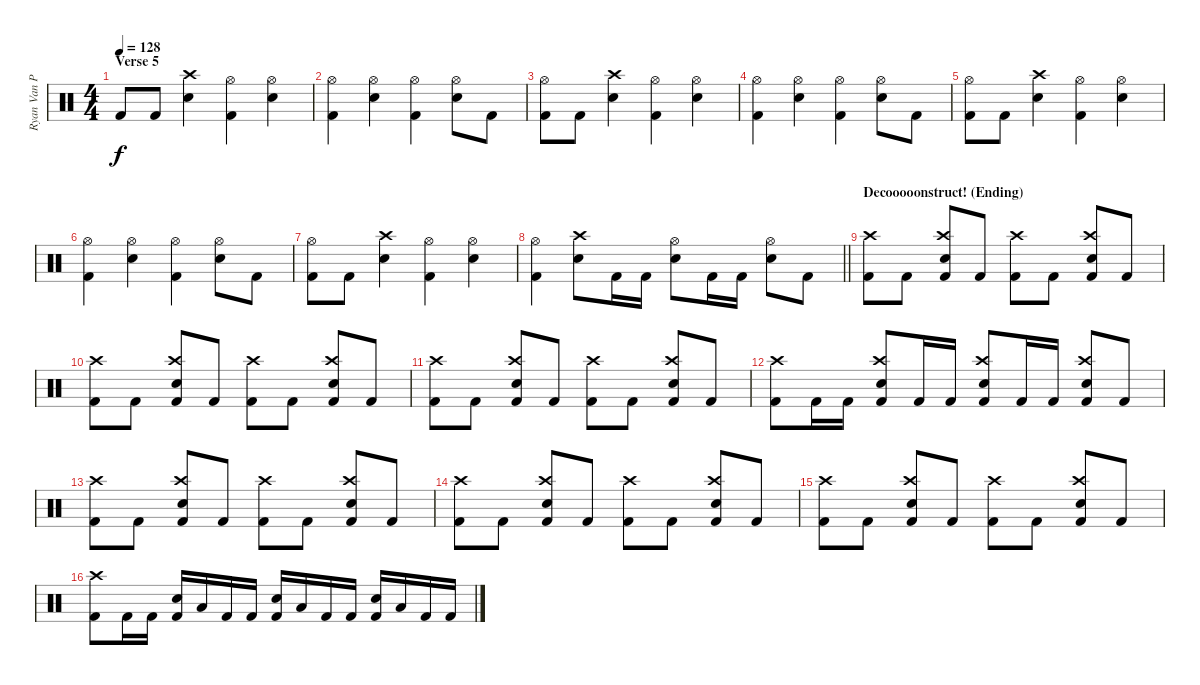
\track ("Ryan Van Poederooyen" "Ryan Van P") {instrument percussion}
\staff {score}
\articulation defaults
\ts (4 4)
\section ("" "Verse 5")
\tempo 128
\clef neutral
\ks c "Kick (hit) 2".8{dy f} "Kick (hit) 2".8
("Crash high (hit)" "Electric Snare (hit)").4 ("Hi-Hat (open)" "Kick (hit) 2").4 ("Hi-Hat (open)" "Electric Snare (hit)").4 |
("Hi-Hat (open)" "Kick (hit) 2").4 ("Hi-Hat (open)" "Electric Snare (hit)").4 ("Hi-Hat (open)" "Kick (hit) 2").4 ("Hi-Hat (open)" "Electric Snare (hit)").8 "Kick (hit) 2".8 |
("Hi-Hat (open)" "Kick (hit) 2").8 "Kick (hit) 2".8 ("Crash high (hit)" "Electric Snare (hit)").4 ("Hi-Hat (open)" "Kick (hit) 2").4 ("Hi-Hat (open)" "Electric Snare (hit)").4 |
("Hi-Hat (open)" "Kick (hit) 2").4 ("Hi-Hat (open)" "Electric Snare (hit)").4 ("Hi-Hat (open)" "Kick (hit) 2").4 ("Hi-Hat (open)" "Electric Snare (hit)").8 "Kick (hit) 2".8 |
("Hi-Hat (open)" "Kick (hit) 2").8 "Kick (hit) 2".8 ("Crash high (hit)" "Electric Snare (hit)").4 ("Hi-Hat (open)" "Kick (hit) 2").4 ("Hi-Hat (open)" "Electric Snare (hit)").4 |
("Hi-Hat (open)" "Kick (hit) 2").4 ("Hi-Hat (open)" "Electric Snare (hit)").4 ("Hi-Hat (open)" "Kick (hit) 2").4 ("Hi-Hat (open)" "Electric Snare (hit)").8 "Kick (hit) 2".8 |
("Hi-Hat (open)" "Kick (hit) 2").8 "Kick (hit) 2".8 ("Crash high (hit)" "Electric Snare (hit)").4 ("Hi-Hat (open)" "Kick (hit) 2").4 ("Hi-Hat (open)" "Electric Snare (hit)").4 |
\barLineRight lightlight
("Hi-Hat (open)" "Kick (hit) 2").4 ("Crash high (hit)" "Electric Snare (hit)").8 "Kick (hit) 2".16 "Kick (hit) 2".16 ("Hi-Hat (open)" "Electric Snare (hit)").8 "Kick (hit) 2".16 "Kick (hit) 2".16 ("Hi-Hat (open)" "Electric Snare (hit)").8 "Kick (hit) 2".8 |
\section ("" "Decooooonstruct! (Ending)")
("Crash high (hit)" "Kick (hit) 2").8 "Kick (hit) 2".8 ("Crash high (hit)" "Electric Snare (hit)" "Kick (hit) 2").8 "Kick (hit) 2".8 ("Crash high (hit)" "Kick (hit) 2").8 "Kick (hit) 2".8 ("Crash high (hit)" "Electric Snare (hit)" "Kick (hit) 2").8 "Kick (hit) 2".8 |
("Crash high (hit)" "Kick (hit) 2").8 "Kick (hit) 2".8 ("Crash high (hit)" "Electric Snare (hit)" "Kick (hit) 2").8 "Kick (hit) 2".8 ("Crash high (hit)" "Kick (hit) 2").8 "Kick (hit) 2".8 ("Crash high (hit)" "Electric Snare (hit)" "Kick (hit) 2").8 "Kick (hit) 2".8 |
("Crash high (hit)" "Kick (hit) 2").8 "Kick (hit) 2".8 ("Crash high (hit)" "Electric Snare (hit)" "Kick (hit) 2").8 "Kick (hit) 2".8 ("Crash high (hit)" "Kick (hit) 2").8 "Kick (hit) 2".8 ("Crash high (hit)" "Electric Snare (hit)" "Kick (hit) 2").8 "Kick (hit) 2".8 |
("Crash high (hit)" "Kick (hit) 2").8 "Kick (hit) 2".16 "Kick (hit) 2".16 ("Crash high (hit)" "Electric Snare (hit)" "Kick (hit) 2").8 "Kick (hit) 2".16 "Kick (hit) 2".16 ("Crash high (hit)" "Electric Snare (hit)" "Kick (hit) 2").8 "Kick (hit) 2".16 "Kick (hit) 2".16 ("Crash high (hit)" "Electric Snare (hit)" "Kick (hit) 2").8 "Kick (hit) 2".8 |
("Crash high (hit)" "Kick (hit) 2").8 "Kick (hit) 2".8 ("Crash high (hit)" "Electric Snare (hit)" "Kick (hit) 2").8 "Kick (hit) 2".8 ("Crash high (hit)" "Kick (hit) 2").8 "Kick (hit) 2".8 ("Crash high (hit)" "Electric Snare (hit)" "Kick (hit) 2").8 "Kick (hit) 2".8 |
("Crash high (hit)" "Kick (hit) 2").8 "Kick (hit) 2".8 ("Crash high (hit)" "Electric Snare (hit)" "Kick (hit) 2").8 "Kick (hit) 2".8 ("Crash high (hit)" "Kick (hit) 2").8 "Kick (hit) 2".8 ("Crash high (hit)" "Electric Snare (hit)" "Kick (hit) 2").8 "Kick (hit) 2".8 |
("Crash high (hit)" "Kick (hit) 2").8 "Kick (hit) 2".8 ("Crash high (hit)" "Electric Snare (hit)" "Kick (hit) 2").8 "Kick (hit) 2".8 ("Crash high (hit)" "Kick (hit) 2").8 "Kick (hit) 2".8 ("Crash high (hit)" "Electric Snare (hit)" "Kick (hit) 2").8 "Kick (hit) 2".8 |
("Crash high (hit)" "Kick (hit) 2").8 "Kick (hit) 2".16 "Kick (hit) 2".16 ("Electric Snare (hit)" "Kick (hit) 2").16 "Low Tom (hit)".16 "Kick (hit) 2".16 "Kick (hit) 2".16 ("Electric Snare (hit)" "Kick (hit) 2").16 "Low Tom (hit)".16 "Kick (hit) 2".16 "Kick (hit) 2".16 ("Electric Snare (hit)" "Kick (hit) 2").16 "Low Tom (hit)".16 "Kick (hit) 2".16 "Kick (hit) 2".16
